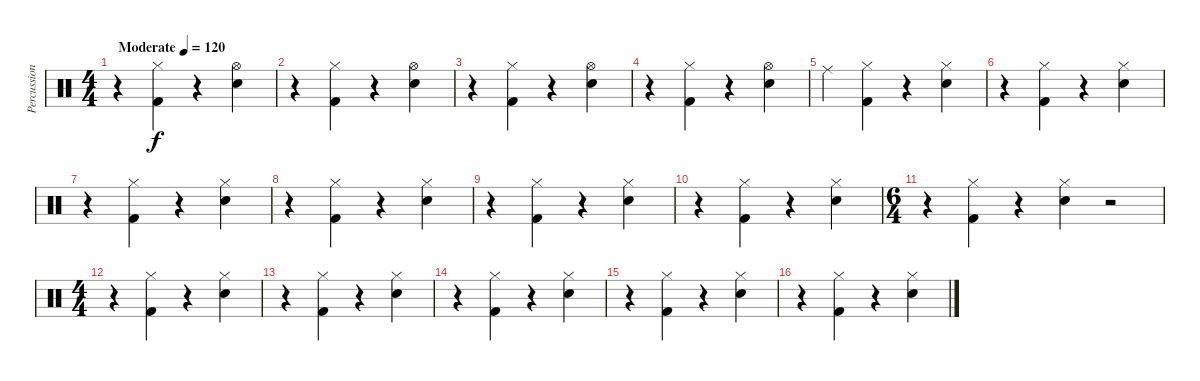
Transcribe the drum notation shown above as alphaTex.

\track ("Percussion" "Percussion") {instrument percussion}
\staff {score}
\articulation defaults
\ts (4 4)
\tempo (120 "Moderate")
\clef neutral
\ks c
r.4{dy f} ("Hi-Hat (closed)" "Kick (hit) 2").4 r.4 ("Hi-Hat (open)" "Electric Snare (hit)").4 |
r.4 ("Hi-Hat (closed)" "Kick (hit) 2").4 r.4 ("Hi-Hat (open)" "Electric Snare (hit)").4 |
r.4 ("Hi-Hat (closed)" "Kick (hit) 2").4 r.4 ("Hi-Hat (open)" "Electric Snare (hit)").4 |
r.4 ("Hi-Hat (closed)" "Kick (hit) 2").4 r.4 ("Hi-Hat (open)" "Electric Snare (hit)").4 |
"Ride (middle)".4 ("Hi-Hat (closed)" "Kick (hit) 2").4 r.4 ("Hi-Hat (closed)" "Electric Snare (hit)").4 |
r.4 ("Hi-Hat (closed)" "Kick (hit) 2").4 r.4 ("Hi-Hat (closed)" "Electric Snare (hit)").4 |
r.4 ("Hi-Hat (closed)" "Kick (hit) 2").4 r.4 ("Hi-Hat (closed)" "Electric Snare (hit)").4 |
r.4 ("Hi-Hat (closed)" "Kick (hit) 2").4 r.4 ("Hi-Hat (closed)" "Electric Snare (hit)").4 |
r.4 ("Hi-Hat (closed)" "Kick (hit) 2").4 r.4 ("Hi-Hat (closed)" "Electric Snare (hit)").4 |
r.4 ("Hi-Hat (closed)" "Kick (hit) 2").4 r.4 ("Hi-Hat (closed)" "Electric Snare (hit)").4 |
\ts (6 4)
r.4 ("Hi-Hat (closed)" "Kick (hit) 2").4 r.4 ("Hi-Hat (closed)" "Electric Snare (hit)").4 r.2 |
\ts (4 4)
r.4 ("Hi-Hat (closed)" "Kick (hit) 2").4 r.4 ("Hi-Hat (closed)" "Electric Snare (hit)").4 |
r.4 ("Hi-Hat (closed)" "Kick (hit) 2").4 r.4 ("Hi-Hat (closed)" "Electric Snare (hit)").4 |
r.4 ("Hi-Hat (closed)" "Kick (hit) 2").4 r.4 ("Hi-Hat (closed)" "Electric Snare (hit)").4 |
r.4 ("Hi-Hat (closed)" "Kick (hit) 2").4 r.4 ("Hi-Hat (closed)" "Electric Snare (hit)").4 |
r.4 ("Hi-Hat (closed)" "Kick (hit) 2").4 r.4 ("Hi-Hat (closed)" "Electric Snare (hit)").4
